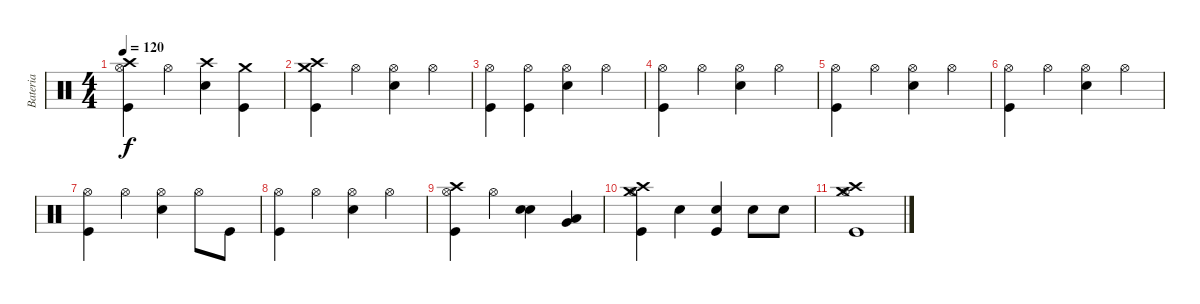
\track ("Bateria" "Bateria") {instrument percussion}
\staff {score}
\articulation defaults
\ts (4 4)
\tempo 120
\clef neutral
\ks c
("Kick (hit)" "Crash high (hit)" "Hi-Hat (open)").4{dy f} "Hi-Hat (open)".4 ("Snare (hit) 2" "Crash high (hit)").4 ("Kick (hit)" "Crash medium (hit)").4 |
("Crash medium (hit)" "Crash high (hit)" "Kick (hit)").4 "Hi-Hat (open)".4 ("Hi-Hat (open)" "Snare (hit) 2").4 "Hi-Hat (open)".4 |
("Hi-Hat (open)" "Kick (hit)").4 ("Hi-Hat (open)" "Kick (hit)").4 ("Hi-Hat (open)" "Snare (hit) 2").4 "Hi-Hat (open)".4 |
("Hi-Hat (open)" "Kick (hit)").4 "Hi-Hat (open)".4 ("Hi-Hat (open)" "Snare (hit) 2").4 "Hi-Hat (open)".4 |
("Hi-Hat (open)" "Kick (hit)").4 "Hi-Hat (open)".4 ("Hi-Hat (open)" "Snare (hit) 2").4 "Hi-Hat (open)".4 |
("Hi-Hat (open)" "Kick (hit)").4 "Hi-Hat (open)".4 ("Hi-Hat (open)" "Snare (hit) 2").4 "Hi-Hat (open)".4 |
("Hi-Hat (open)" "Kick (hit)").4 "Hi-Hat (open)".4 ("Hi-Hat (open)" "Snare (hit) 2").4 "Hi-Hat (open)".8 "Kick (hit)".8 |
("Hi-Hat (open)" "Kick (hit)").4 "Hi-Hat (open)".4 ("Hi-Hat (open)" "Snare (hit) 2").4 "Hi-Hat (open)".4 |
("Crash high (hit)" "Hi-Hat (open)" "Kick (hit)").4 "Hi-Hat (open)".4 ("Snare (hit) 2" "Snare (hit) 2").4 ("Very Low Tom (hit)" "Low Floor Tom (hit)").4 |
("Crash high (hit)" "Crash medium (hit)" "Hi-Hat (open)" "Kick (hit)").4 "Snare (hit) 2".4 ("Snare (hit) 2" "Kick (hit)").4 "Snare (hit) 2".8 "Snare (hit) 2".8 |
("Crash high (hit)" "Crash medium (hit)" "Hi-Hat (open)" "Kick (hit)").1
